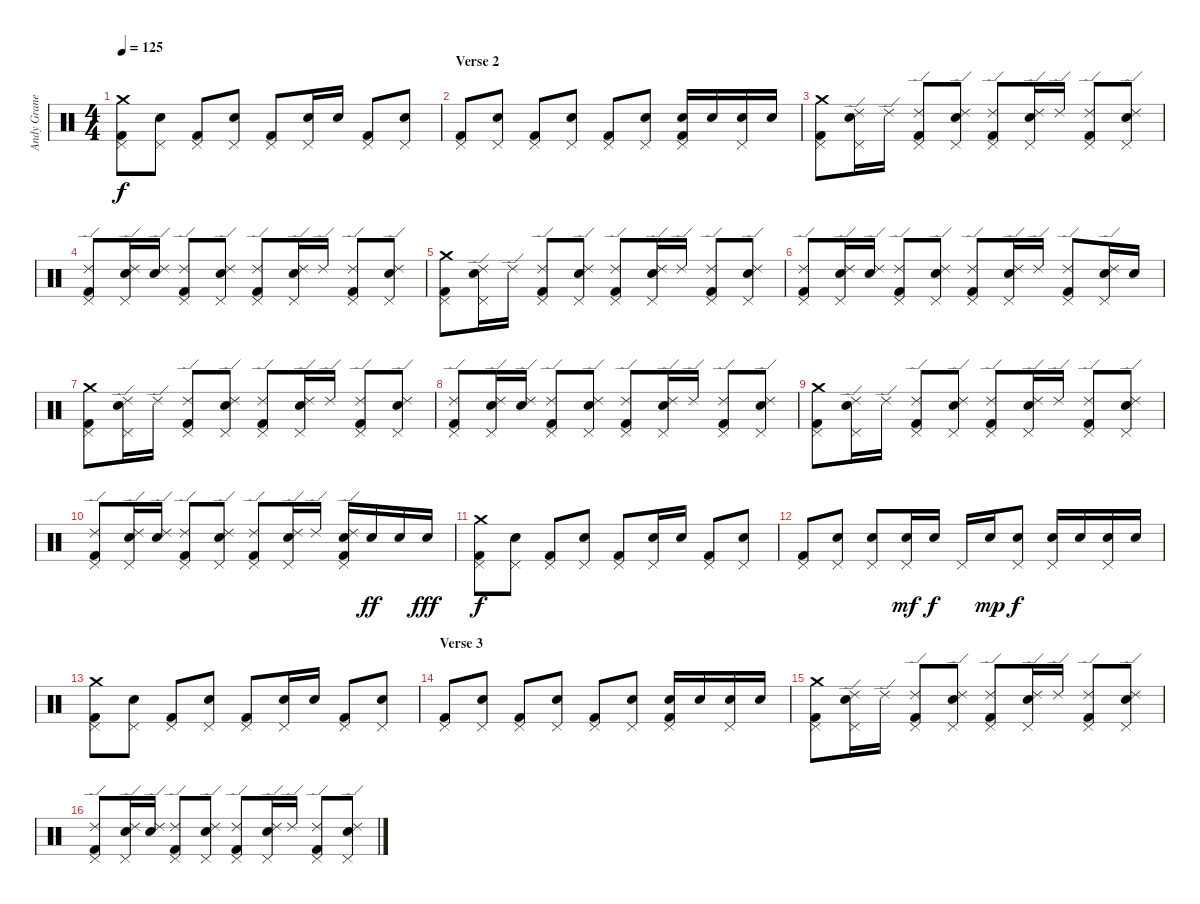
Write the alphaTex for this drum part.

\track ("Andy Granelli" "Andy Grane") {instrument percussion}
\staff {score}
\articulation defaults
\ts (4 4)
\tempo 125
\clef neutral
\ks c
("Crash medium (hit)" "Pedal Hi-Hat (hit)" "Kick (hit) 2").8{dy f} ("Pedal Hi-Hat (hit)" "Electric Snare (hit)").8 ("Pedal Hi-Hat (hit)" "Kick (hit) 2").8 ("Pedal Hi-Hat (hit)" "Electric Snare (hit)").8 ("Pedal Hi-Hat (hit)" "Kick (hit) 2").8 ("Pedal Hi-Hat (hit)" "Electric Snare (hit)").16 "Electric Snare (hit)".16 ("Pedal Hi-Hat (hit)" "Kick (hit) 2").8 ("Pedal Hi-Hat (hit)" "Electric Snare (hit)").8 |
\section ("" "Verse 2")
("Pedal Hi-Hat (hit)" "Kick (hit) 2").8 ("Pedal Hi-Hat (hit)" "Electric Snare (hit)").8 ("Pedal Hi-Hat (hit)" "Kick (hit) 2").8 ("Pedal Hi-Hat (hit)" "Electric Snare (hit)").8 ("Pedal Hi-Hat (hit)" "Kick (hit) 2").8 ("Pedal Hi-Hat (hit)" "Electric Snare (hit)").8 ("Pedal Hi-Hat (hit)" "Electric Snare (hit)" "Kick (hit) 2").16 "Electric Snare (hit)".16 ("Pedal Hi-Hat (hit)" "Electric Snare (hit)").16 "Electric Snare (hit)".16 |
("Crash medium (hit)" "Pedal Hi-Hat (hit)" "Kick (hit) 2").8 ("Ride (edge) 2" "Electric Snare (hit)" "Pedal Hi-Hat (hit)").16 "Ride (edge) 2".16 ("Ride (edge) 2" "Pedal Hi-Hat (hit)" "Kick (hit) 2").8 ("Ride (edge) 2" "Electric Snare (hit)" "Pedal Hi-Hat (hit)").8 ("Ride (edge) 2" "Pedal Hi-Hat (hit)" "Kick (hit) 2").8 ("Ride (edge) 2" "Electric Snare (hit)" "Pedal Hi-Hat (hit)").16 "Ride (edge) 2".16 ("Ride (edge) 2" "Pedal Hi-Hat (hit)" "Kick (hit) 2").8 ("Ride (edge) 2" "Electric Snare (hit)" "Pedal Hi-Hat (hit)").8 |
("Ride (edge) 2" "Pedal Hi-Hat (hit)" "Kick (hit) 2").8 ("Ride (edge) 2" "Electric Snare (hit)" "Pedal Hi-Hat (hit)").16 ("Ride (edge) 2" "Electric Snare (hit)").16 ("Ride (edge) 2" "Pedal Hi-Hat (hit)" "Kick (hit) 2").8 ("Ride (edge) 2" "Electric Snare (hit)" "Pedal Hi-Hat (hit)").8 ("Ride (edge) 2" "Pedal Hi-Hat (hit)" "Kick (hit) 2").8 ("Ride (edge) 2" "Electric Snare (hit)" "Pedal Hi-Hat (hit)").16 "Ride (edge) 2".16 ("Ride (edge) 2" "Pedal Hi-Hat (hit)" "Kick (hit) 2").8 ("Ride (edge) 2" "Electric Snare (hit)" "Pedal Hi-Hat (hit)").8 |
("Crash medium (hit)" "Pedal Hi-Hat (hit)" "Kick (hit) 2").8 ("Ride (edge) 2" "Electric Snare (hit)" "Pedal Hi-Hat (hit)").16 "Ride (edge) 2".16 ("Ride (edge) 2" "Pedal Hi-Hat (hit)" "Kick (hit) 2").8 ("Ride (edge) 2" "Electric Snare (hit)" "Pedal Hi-Hat (hit)").8 ("Ride (edge) 2" "Pedal Hi-Hat (hit)" "Kick (hit) 2").8 ("Ride (edge) 2" "Electric Snare (hit)" "Pedal Hi-Hat (hit)").16 "Ride (edge) 2".16 ("Ride (edge) 2" "Pedal Hi-Hat (hit)" "Kick (hit) 2").8 ("Ride (edge) 2" "Electric Snare (hit)" "Pedal Hi-Hat (hit)").8 |
("Ride (edge) 2" "Pedal Hi-Hat (hit)" "Kick (hit) 2").8 ("Ride (edge) 2" "Electric Snare (hit)" "Pedal Hi-Hat (hit)").16 ("Ride (edge) 2" "Electric Snare (hit)").16 ("Ride (edge) 2" "Pedal Hi-Hat (hit)" "Kick (hit) 2").8 ("Ride (edge) 2" "Electric Snare (hit)" "Pedal Hi-Hat (hit)").8 ("Ride (edge) 2" "Pedal Hi-Hat (hit)" "Kick (hit) 2").8 ("Ride (edge) 2" "Electric Snare (hit)" "Pedal Hi-Hat (hit)").16 "Ride (edge) 2".16 ("Ride (edge) 2" "Pedal Hi-Hat (hit)" "Kick (hit) 2").8 ("Ride (edge) 2" "Electric Snare (hit)" "Pedal Hi-Hat (hit)").16 "Electric Snare (hit)".16 |
("Crash medium (hit)" "Pedal Hi-Hat (hit)" "Kick (hit) 2").8 ("Ride (edge) 2" "Electric Snare (hit)" "Pedal Hi-Hat (hit)").16 "Ride (edge) 2".16 ("Ride (edge) 2" "Pedal Hi-Hat (hit)" "Kick (hit) 2").8 ("Ride (edge) 2" "Electric Snare (hit)" "Pedal Hi-Hat (hit)").8 ("Ride (edge) 2" "Pedal Hi-Hat (hit)" "Kick (hit) 2").8 ("Ride (edge) 2" "Electric Snare (hit)" "Pedal Hi-Hat (hit)").16 "Ride (edge) 2".16 ("Ride (edge) 2" "Pedal Hi-Hat (hit)" "Kick (hit) 2").8 ("Ride (edge) 2" "Electric Snare (hit)" "Pedal Hi-Hat (hit)").8 |
("Ride (edge) 2" "Pedal Hi-Hat (hit)" "Kick (hit) 2").8 ("Ride (edge) 2" "Electric Snare (hit)" "Pedal Hi-Hat (hit)").16 ("Ride (edge) 2" "Electric Snare (hit)").16 ("Ride (edge) 2" "Pedal Hi-Hat (hit)" "Kick (hit) 2").8 ("Ride (edge) 2" "Electric Snare (hit)" "Pedal Hi-Hat (hit)").8 ("Ride (edge) 2" "Pedal Hi-Hat (hit)" "Kick (hit) 2").8 ("Ride (edge) 2" "Electric Snare (hit)" "Pedal Hi-Hat (hit)").16 "Ride (edge) 2".16 ("Ride (edge) 2" "Pedal Hi-Hat (hit)" "Kick (hit) 2").8 ("Ride (edge) 2" "Electric Snare (hit)" "Pedal Hi-Hat (hit)").8 |
("Crash medium (hit)" "Pedal Hi-Hat (hit)" "Kick (hit) 2").8 ("Ride (edge) 2" "Electric Snare (hit)" "Pedal Hi-Hat (hit)").16 "Ride (edge) 2".16 ("Ride (edge) 2" "Pedal Hi-Hat (hit)" "Kick (hit) 2").8 ("Ride (edge) 2" "Electric Snare (hit)" "Pedal Hi-Hat (hit)").8 ("Ride (edge) 2" "Pedal Hi-Hat (hit)" "Kick (hit) 2").8 ("Ride (edge) 2" "Electric Snare (hit)" "Pedal Hi-Hat (hit)").16 "Ride (edge) 2".16 ("Ride (edge) 2" "Pedal Hi-Hat (hit)" "Kick (hit) 2").8 ("Ride (edge) 2" "Electric Snare (hit)" "Pedal Hi-Hat (hit)").8 |
("Ride (edge) 2" "Pedal Hi-Hat (hit)" "Kick (hit) 2").8 ("Ride (edge) 2" "Electric Snare (hit)" "Pedal Hi-Hat (hit)").16 ("Ride (edge) 2" "Electric Snare (hit)").16 ("Ride (edge) 2" "Pedal Hi-Hat (hit)" "Kick (hit) 2").8 ("Ride (edge) 2" "Electric Snare (hit)" "Pedal Hi-Hat (hit)").8 ("Ride (edge) 2" "Pedal Hi-Hat (hit)" "Kick (hit) 2").8 ("Ride (edge) 2" "Electric Snare (hit)" "Pedal Hi-Hat (hit)").16 "Ride (edge) 2".16 ("Ride (edge) 2" "Electric Snare (hit)" "Pedal Hi-Hat (hit)" "Kick (hit) 2").16 "Electric Snare (hit)".16{dy ff} "Electric Snare (hit)".16 "Electric Snare (hit)".16{dy fff} |
("Crash medium (hit)" "Pedal Hi-Hat (hit)" "Kick (hit) 2").8{dy f} ("Pedal Hi-Hat (hit)" "Electric Snare (hit)").8 ("Pedal Hi-Hat (hit)" "Kick (hit) 2").8 ("Pedal Hi-Hat (hit)" "Electric Snare (hit)").8 ("Pedal Hi-Hat (hit)" "Kick (hit) 2").8 ("Pedal Hi-Hat (hit)" "Electric Snare (hit)").16 "Electric Snare (hit)".16 ("Pedal Hi-Hat (hit)" "Kick (hit) 2").8 ("Pedal Hi-Hat (hit)" "Electric Snare (hit)").8 |
("Pedal Hi-Hat (hit)" "Kick (hit) 2").8 ("Pedal Hi-Hat (hit)" "Electric Snare (hit)").8 ("Pedal Hi-Hat (hit)" "Electric Snare (hit)").8 ("Pedal Hi-Hat (hit)" "Electric Snare (hit)").16{dy mf} "Electric Snare (hit)".16{dy f} "Pedal Hi-Hat (hit)".16 "Electric Snare (hit)".16{dy mp} ("Pedal Hi-Hat (hit)" "Electric Snare (hit)").8{dy f} ("Pedal Hi-Hat (hit)" "Electric Snare (hit)").16 "Electric Snare (hit)".16 ("Pedal Hi-Hat (hit)" "Electric Snare (hit)").16 "Electric Snare (hit)".16 |
("Crash medium (hit)" "Pedal Hi-Hat (hit)" "Kick (hit) 2").8 ("Pedal Hi-Hat (hit)" "Electric Snare (hit)").8 ("Pedal Hi-Hat (hit)" "Kick (hit) 2").8 ("Pedal Hi-Hat (hit)" "Electric Snare (hit)").8 ("Pedal Hi-Hat (hit)" "Kick (hit) 2").8 ("Pedal Hi-Hat (hit)" "Electric Snare (hit)").16 "Electric Snare (hit)".16 ("Pedal Hi-Hat (hit)" "Kick (hit) 2").8 ("Pedal Hi-Hat (hit)" "Electric Snare (hit)").8 |
\section ("" "Verse 3")
("Pedal Hi-Hat (hit)" "Kick (hit) 2").8 ("Pedal Hi-Hat (hit)" "Electric Snare (hit)").8 ("Pedal Hi-Hat (hit)" "Kick (hit) 2").8 ("Pedal Hi-Hat (hit)" "Electric Snare (hit)").8 ("Pedal Hi-Hat (hit)" "Kick (hit) 2").8 ("Pedal Hi-Hat (hit)" "Electric Snare (hit)").8 ("Pedal Hi-Hat (hit)" "Electric Snare (hit)" "Kick (hit) 2").16 "Electric Snare (hit)".16 ("Pedal Hi-Hat (hit)" "Electric Snare (hit)").16 "Electric Snare (hit)".16 |
("Crash medium (hit)" "Pedal Hi-Hat (hit)" "Kick (hit) 2").8 ("Ride (edge) 2" "Electric Snare (hit)" "Pedal Hi-Hat (hit)").16 "Ride (edge) 2".16 ("Ride (edge) 2" "Pedal Hi-Hat (hit)" "Kick (hit) 2").8 ("Ride (edge) 2" "Electric Snare (hit)" "Pedal Hi-Hat (hit)").8 ("Ride (edge) 2" "Pedal Hi-Hat (hit)" "Kick (hit) 2").8 ("Ride (edge) 2" "Electric Snare (hit)" "Pedal Hi-Hat (hit)").16 "Ride (edge) 2".16 ("Ride (edge) 2" "Pedal Hi-Hat (hit)" "Kick (hit) 2").8 ("Ride (edge) 2" "Electric Snare (hit)" "Pedal Hi-Hat (hit)").8 |
("Ride (edge) 2" "Pedal Hi-Hat (hit)" "Kick (hit) 2").8 ("Ride (edge) 2" "Electric Snare (hit)" "Pedal Hi-Hat (hit)").16 ("Ride (edge) 2" "Electric Snare (hit)").16 ("Ride (edge) 2" "Pedal Hi-Hat (hit)" "Kick (hit) 2").8 ("Ride (edge) 2" "Electric Snare (hit)" "Pedal Hi-Hat (hit)").8 ("Ride (edge) 2" "Pedal Hi-Hat (hit)" "Kick (hit) 2").8 ("Ride (edge) 2" "Electric Snare (hit)" "Pedal Hi-Hat (hit)").16 "Ride (edge) 2".16 ("Ride (edge) 2" "Pedal Hi-Hat (hit)" "Kick (hit) 2").8 ("Ride (edge) 2" "Electric Snare (hit)" "Pedal Hi-Hat (hit)").8
